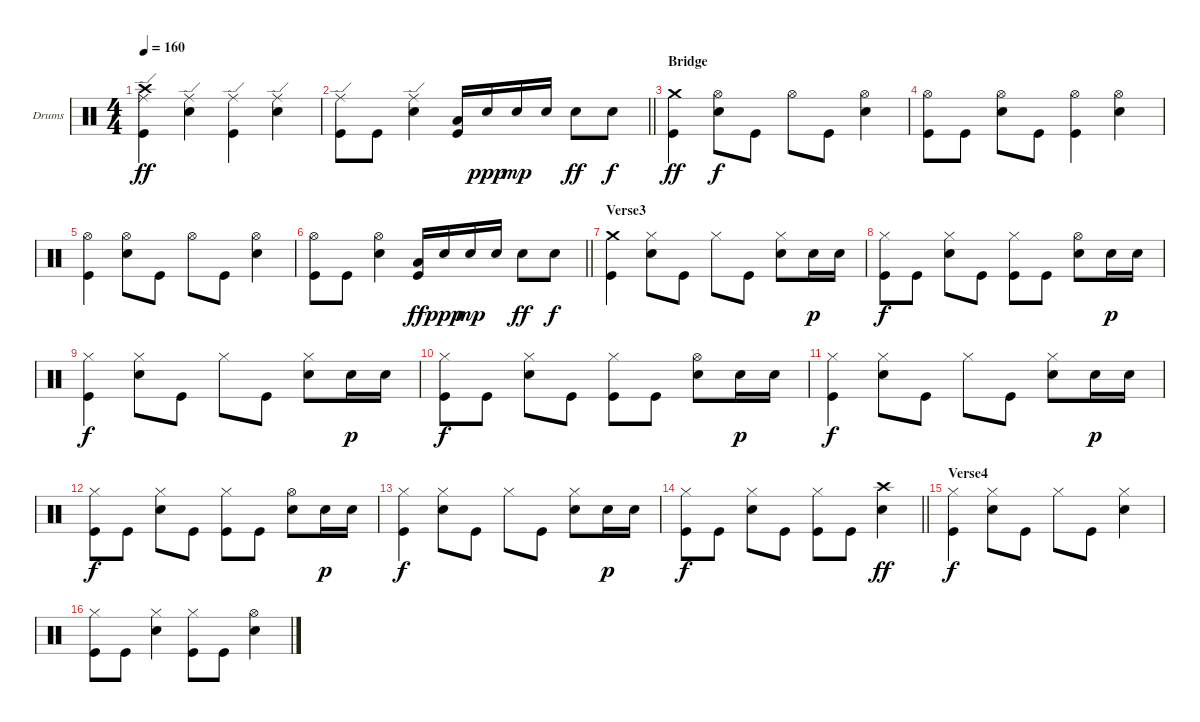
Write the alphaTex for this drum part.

\bracketExtendMode groupsimilarinstruments
\firstSystemTrackNameOrientation horizontal
\otherSystemsTrackNameOrientation horizontal
\track ("Jean-Paul Gaster" "Drums") {instrument percussion}
\staff {score}
\articulation defaults
\ts (4 4)
\tempo 160
\clef neutral
\ks c
("Ride (edge)" "Crash high (hit)" "Kick (hit)").4{dy ff} ("Ride (edge)" "Snare (hit) 2").4 ("Ride (edge)" "Kick (hit)").4 ("Ride (edge)" "Snare (hit) 2").4 |
\barLineRight lightlight
("Ride (edge)" "Kick (hit)").8 "Kick (hit)".8 ("Ride (edge)" "Snare (hit) 2").4 ("Low Tom (hit)" "Kick (hit)").16 "Snare (hit) 2".16{dy ppp} "Snare (hit) 2".16{dy mp} "Snare (hit) 2".16 "Snare (hit) 2".8{dy ff} "Snare (hit) 2".8{dy f} |
\section ("" "Bridge")
("Crash medium (hit)" "Kick (hit)").4{dy ff} ("Hi-Hat (open)" "Snare (hit) 2").8{dy f} "Kick (hit)".8 "Hi-Hat (open)".8 "Kick (hit)".8 ("Hi-Hat (open)" "Snare (hit) 2").4 |
("Hi-Hat (open)" "Kick (hit)").8 "Kick (hit)".8 ("Hi-Hat (open)" "Snare (hit) 2").8 "Kick (hit)".8 ("Hi-Hat (open)" "Kick (hit)").4 ("Hi-Hat (open)" "Snare (hit) 2").4 |
("Hi-Hat (open)" "Kick (hit)").4 ("Hi-Hat (open)" "Snare (hit) 2").8 "Kick (hit)".8 "Hi-Hat (open)".8 "Kick (hit)".8 ("Hi-Hat (open)" "Snare (hit) 2").4 |
\barLineRight lightlight
("Hi-Hat (open)" "Kick (hit)").8 "Kick (hit)".8 ("Hi-Hat (open)" "Snare (hit) 2").4 ("Low Tom (hit)" "Kick (hit)").16{dy ff} "Snare (hit) 2".16{dy ppp} "Snare (hit) 2".16{dy mp} "Snare (hit) 2".16 "Snare (hit) 2".8{dy ff} "Snare (hit) 2".8{dy f} |
\section ("" "Verse3")
("Crash medium (hit)" "Kick (hit)").4 ("Hi-Hat (closed)" "Snare (hit) 2").8 "Kick (hit)".8 "Hi-Hat (closed)".8 "Kick (hit)".8 ("Hi-Hat (closed)" "Snare (hit) 2").8 "Snare (hit) 2".16{dy p} "Snare (hit) 2".16 |
("Hi-Hat (closed)" "Kick (hit)").8{dy f} "Kick (hit)".8 ("Hi-Hat (closed)" "Snare (hit) 2").8 "Kick (hit)".8 ("Hi-Hat (closed)" "Kick (hit)").8 "Kick (hit)".8 ("Hi-Hat (open)" "Snare (hit) 2").8 "Snare (hit) 2".16{dy p} "Snare (hit) 2".16 |
("Hi-Hat (closed)" "Kick (hit)").4{dy f} ("Hi-Hat (closed)" "Snare (hit) 2").8 "Kick (hit)".8 "Hi-Hat (closed)".8 "Kick (hit)".8 ("Hi-Hat (closed)" "Snare (hit) 2").8 "Snare (hit) 2".16{dy p} "Snare (hit) 2".16 |
("Hi-Hat (closed)" "Kick (hit)").8{dy f} "Kick (hit)".8 ("Hi-Hat (closed)" "Snare (hit) 2").8 "Kick (hit)".8 ("Hi-Hat (closed)" "Kick (hit)").8 "Kick (hit)".8 ("Hi-Hat (open)" "Snare (hit) 2").8 "Snare (hit) 2".16{dy p} "Snare (hit) 2".16 |
("Hi-Hat (closed)" "Kick (hit)").4{dy f} ("Hi-Hat (closed)" "Snare (hit) 2").8 "Kick (hit)".8 "Hi-Hat (closed)".8 "Kick (hit)".8 ("Hi-Hat (closed)" "Snare (hit) 2").8 "Snare (hit) 2".16{dy p} "Snare (hit) 2".16 |
("Hi-Hat (closed)" "Kick (hit)").8{dy f} "Kick (hit)".8 ("Hi-Hat (closed)" "Snare (hit) 2").8 "Kick (hit)".8 ("Hi-Hat (closed)" "Kick (hit)").8 "Kick (hit)".8 ("Hi-Hat (open)" "Snare (hit) 2").8 "Snare (hit) 2".16{dy p} "Snare (hit) 2".16 |
("Hi-Hat (closed)" "Kick (hit)").4{dy f} ("Hi-Hat (closed)" "Snare (hit) 2").8 "Kick (hit)".8 "Hi-Hat (closed)".8 "Kick (hit)".8 ("Hi-Hat (closed)" "Snare (hit) 2").8 "Snare (hit) 2".16{dy p} "Snare (hit) 2".16 |
\barLineRight lightlight
("Hi-Hat (closed)" "Kick (hit)").8{dy f} "Kick (hit)".8 ("Hi-Hat (closed)" "Snare (hit) 2").8 "Kick (hit)".8 ("Hi-Hat (closed)" "Kick (hit)").8 "Kick (hit)".8 ("Crash high (hit)" "Snare (hit) 2").4{dy ff} |
\section ("" "Verse4")
("Hi-Hat (closed)" "Kick (hit)").4{dy f} ("Hi-Hat (closed)" "Snare (hit) 2").8 "Kick (hit)".8 "Hi-Hat (closed)".8 "Kick (hit)".8 ("Hi-Hat (closed)" "Snare (hit) 2").4 |
("Hi-Hat (closed)" "Kick (hit)").8 "Kick (hit)".8 ("Hi-Hat (closed)" "Snare (hit) 2").4 ("Hi-Hat (closed)" "Kick (hit)").8 "Kick (hit)".8 ("Hi-Hat (open)" "Snare (hit) 2").4
